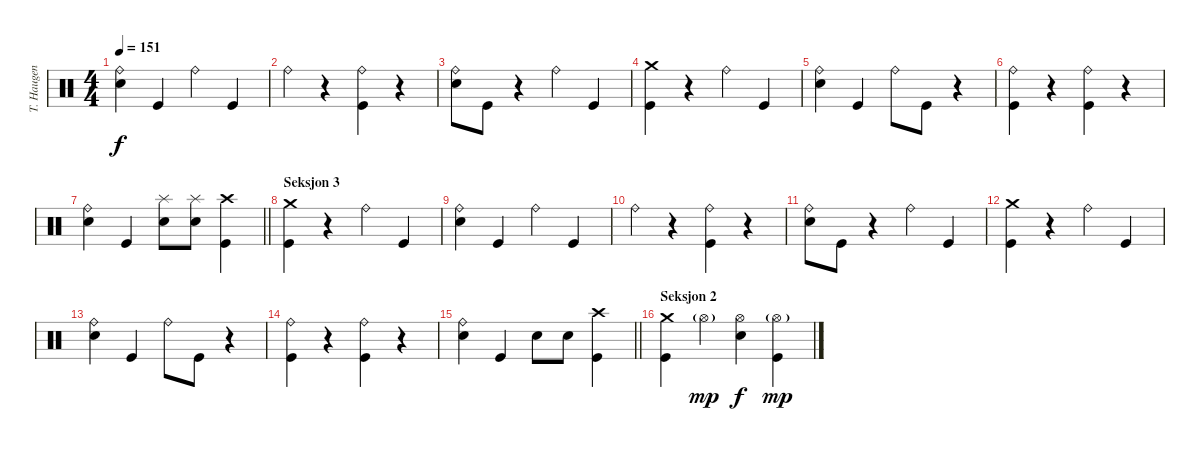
\track ("T. Haugen" "T. Haugen") {instrument percussion}
\staff {score}
\articulation defaults
\ts (4 4)
\tempo 151
\clef neutral
\ks c
("Ride (bell)" "Electric Snare (hit)").4{dy f} "Kick (hit)".4 "Ride (bell)".4 "Kick (hit)".4 |
"Ride (bell)".4 r.4 ("Ride (bell)" "Kick (hit)").4 r.4 |
("Ride (bell)" "Electric Snare (hit)").8 "Kick (hit)".8 r.4 "Ride (bell)".4 "Kick (hit)".4 |
("Crash medium (hit)" "Kick (hit)").4 r.4 "Ride (bell)".4 "Kick (hit)".4 |
("Ride (bell)" "Electric Snare (hit)").4 "Kick (hit)".4 "Ride (bell)".8 "Kick (hit)".8 r.4 |
("Ride (bell)" "Kick (hit)").4 r.4 ("Ride (bell)" "Kick (hit)").4 r.4 |
\barLineRight lightlight
("Ride (bell)" "Electric Snare (hit)").4 "Kick (hit)".4 ("Splash (hit)" "Electric Snare (hit)").8 ("Splash (hit)" "Electric Snare (hit)").8 ("Crash high (hit)" "Kick (hit)").4 |
\section ("" "Seksjon 3")
("Crash medium (hit)" "Kick (hit)").4 r.4 "Ride (bell)".4 "Kick (hit)".4 |
("Ride (bell)" "Electric Snare (hit)").4 "Kick (hit)".4 "Ride (bell)".4 "Kick (hit)".4 |
"Ride (bell)".4 r.4 ("Ride (bell)" "Kick (hit)").4 r.4 |
("Ride (bell)" "Electric Snare (hit)").8 "Kick (hit)".8 r.4 "Ride (bell)".4 "Kick (hit)".4 |
("Crash medium (hit)" "Kick (hit)").4 r.4 "Ride (bell)".4 "Kick (hit)".4 |
("Ride (bell)" "Electric Snare (hit)").4 "Kick (hit)".4 "Ride (bell)".8 "Kick (hit)".8 r.4 |
("Ride (bell)" "Kick (hit)").4 r.4 ("Ride (bell)" "Kick (hit)").4 r.4 |
\barLineRight lightlight
("Ride (bell)" "Electric Snare (hit)").4 "Kick (hit)".4 "Electric Snare (hit)".8 "Electric Snare (hit)".8 ("Crash high (hit)" "Kick (hit)").4 |
\section ("" "Seksjon 2")
("Crash medium (hit)" "Kick (hit)").4 "Hi-Hat (open)"{g}.4{dy mp} ("Hi-Hat (open)" "Electric Snare (hit)").4{dy f} ("Hi-Hat (open)"{g} "Kick (hit)").4{dy mp}
